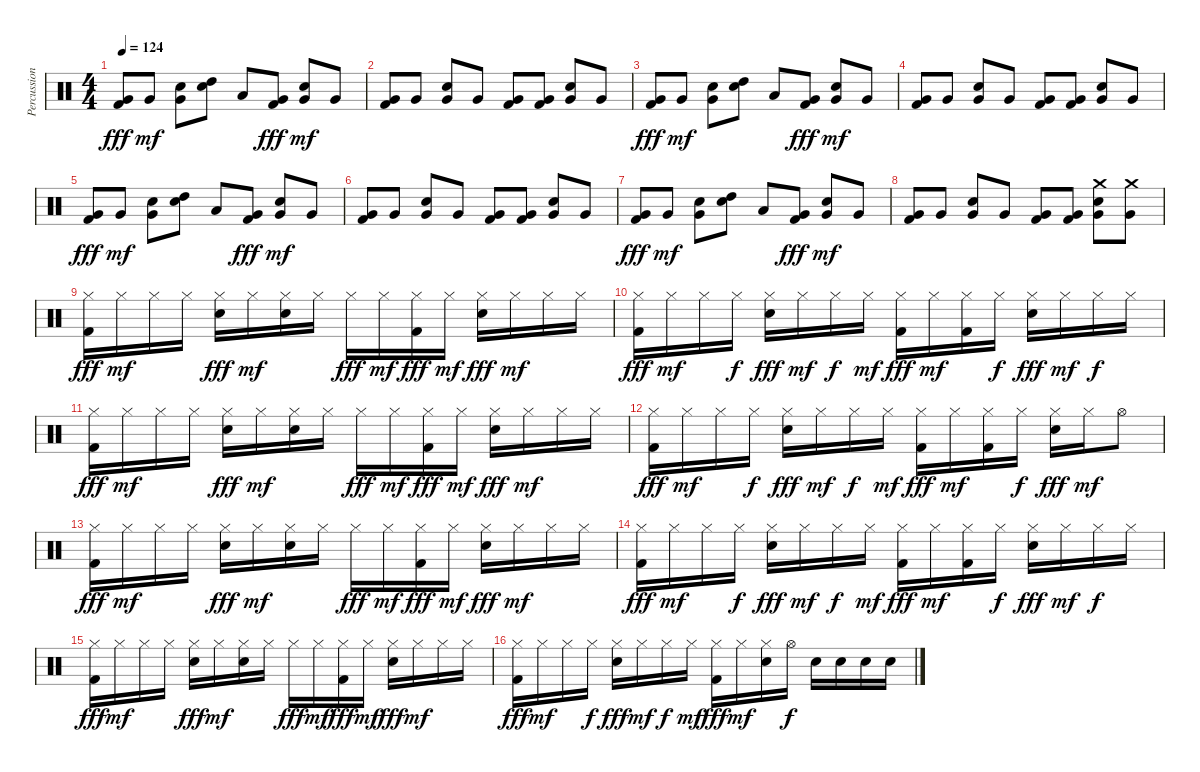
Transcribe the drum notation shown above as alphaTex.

\track ("Percussion" "Percussion") {instrument percussion}
\staff {score}
\articulation defaults
\ts (4 4)
\tempo 124
\clef neutral
\ks c
("Very Low Tom (hit)" "Kick (hit) 2").8{dy fff} "Very Low Tom (hit)".8{dy mf} ("Very Low Tom (hit)" "Snare (hit) 2").8 ("High Tom (hit)" "Snare (hit) 2").8 "Low Tom (hit)".8 ("Very Low Tom (hit)" "Kick (hit) 2").8{dy fff} ("Very Low Tom (hit)" "Snare (hit) 2").8{dy mf} "Very Low Tom (hit)".8 |
("Very Low Tom (hit)" "Kick (hit) 2").8 "Very Low Tom (hit)".8 ("Very Low Tom (hit)" "Snare (hit) 2").8 "Very Low Tom (hit)".8 ("Very Low Tom (hit)" "Kick (hit) 2").8 ("Very Low Tom (hit)" "Kick (hit) 2").8 ("Very Low Tom (hit)" "Snare (hit) 2").8 "Very Low Tom (hit)".8 |
("Very Low Tom (hit)" "Kick (hit) 2").8{dy fff} "Very Low Tom (hit)".8{dy mf} ("Very Low Tom (hit)" "Snare (hit) 2").8 ("High Tom (hit)" "Snare (hit) 2").8 "Low Tom (hit)".8 ("Very Low Tom (hit)" "Kick (hit) 2").8{dy fff} ("Very Low Tom (hit)" "Snare (hit) 2").8{dy mf} "Very Low Tom (hit)".8 |
("Very Low Tom (hit)" "Kick (hit) 2").8 "Very Low Tom (hit)".8 ("Very Low Tom (hit)" "Snare (hit) 2").8 "Very Low Tom (hit)".8 ("Very Low Tom (hit)" "Kick (hit) 2").8 ("Very Low Tom (hit)" "Kick (hit) 2").8 ("Very Low Tom (hit)" "Snare (hit) 2").8 "Very Low Tom (hit)".8 |
("Very Low Tom (hit)" "Kick (hit) 2").8{dy fff} "Very Low Tom (hit)".8{dy mf} ("Very Low Tom (hit)" "Snare (hit) 2").8 ("High Tom (hit)" "Snare (hit) 2").8 "Low Tom (hit)".8 ("Very Low Tom (hit)" "Kick (hit) 2").8{dy fff} ("Very Low Tom (hit)" "Snare (hit) 2").8{dy mf} "Very Low Tom (hit)".8 |
("Very Low Tom (hit)" "Kick (hit) 2").8 "Very Low Tom (hit)".8 ("Very Low Tom (hit)" "Snare (hit) 2").8 "Very Low Tom (hit)".8 ("Very Low Tom (hit)" "Kick (hit) 2").8 ("Very Low Tom (hit)" "Kick (hit) 2").8 ("Very Low Tom (hit)" "Snare (hit) 2").8 "Very Low Tom (hit)".8 |
("Very Low Tom (hit)" "Kick (hit) 2").8{dy fff} "Very Low Tom (hit)".8{dy mf} ("Very Low Tom (hit)" "Snare (hit) 2").8 ("High Tom (hit)" "Snare (hit) 2").8 "Low Tom (hit)".8 ("Very Low Tom (hit)" "Kick (hit) 2").8{dy fff} ("Very Low Tom (hit)" "Snare (hit) 2").8{dy mf} "Very Low Tom (hit)".8 |
("Very Low Tom (hit)" "Kick (hit) 2").8 "Very Low Tom (hit)".8 ("Very Low Tom (hit)" "Snare (hit) 2").8 "Very Low Tom (hit)".8 ("Very Low Tom (hit)" "Kick (hit) 2").8 ("Very Low Tom (hit)" "Kick (hit) 2").8 ("Crash medium (hit)" "Very Low Tom (hit)" "Snare (hit) 2").8 ("Crash medium (hit)" "Very Low Tom (hit)").8 |
("Hi-Hat (closed)" "Kick (hit) 2").16{dy fff} "Hi-Hat (closed)".16{dy mf} "Hi-Hat (closed)".16 "Hi-Hat (closed)".16 ("Hi-Hat (closed)" "Snare (hit) 2").16{dy fff} "Hi-Hat (closed)".16{dy mf} ("Hi-Hat (closed)" "Snare (hit) 2").16 "Hi-Hat (closed)".16 "Hi-Hat (closed)".16{dy fff} "Hi-Hat (closed)".16{dy mf} ("Hi-Hat (closed)" "Kick (hit) 2").16{dy fff} "Hi-Hat (closed)".16{dy mf} ("Hi-Hat (closed)" "Snare (hit) 2").16{dy fff} "Hi-Hat (closed)".16{dy mf} "Hi-Hat (closed)".16 "Hi-Hat (closed)".16 |
("Hi-Hat (closed)" "Kick (hit) 2").16{dy fff} "Hi-Hat (closed)".16{dy mf} "Hi-Hat (closed)".16 "Hi-Hat (closed)".16{dy f} ("Hi-Hat (closed)" "Snare (hit) 2").16{dy fff} "Hi-Hat (closed)".16{dy mf} "Hi-Hat (closed)".16{dy f} "Hi-Hat (closed)".16{dy mf} ("Hi-Hat (closed)" "Kick (hit) 2").16{dy fff} "Hi-Hat (closed)".16{dy mf} ("Hi-Hat (closed)" "Kick (hit) 2").16 "Hi-Hat (closed)".16{dy f} ("Hi-Hat (closed)" "Snare (hit) 2").16{dy fff} "Hi-Hat (closed)".16{dy mf} "Hi-Hat (closed)".16{dy f} "Hi-Hat (closed)".16 |
("Hi-Hat (closed)" "Kick (hit) 2").16{dy fff} "Hi-Hat (closed)".16{dy mf} "Hi-Hat (closed)".16 "Hi-Hat (closed)".16 ("Hi-Hat (closed)" "Snare (hit) 2").16{dy fff} "Hi-Hat (closed)".16{dy mf} ("Hi-Hat (closed)" "Snare (hit) 2").16 "Hi-Hat (closed)".16 "Hi-Hat (closed)".16{dy fff} "Hi-Hat (closed)".16{dy mf} ("Hi-Hat (closed)" "Kick (hit) 2").16{dy fff} "Hi-Hat (closed)".16{dy mf} ("Hi-Hat (closed)" "Snare (hit) 2").16{dy fff} "Hi-Hat (closed)".16{dy mf} "Hi-Hat (closed)".16 "Hi-Hat (closed)".16 |
("Hi-Hat (closed)" "Kick (hit) 2").16{dy fff} "Hi-Hat (closed)".16{dy mf} "Hi-Hat (closed)".16 "Hi-Hat (closed)".16{dy f} ("Hi-Hat (closed)" "Snare (hit) 2").16{dy fff} "Hi-Hat (closed)".16{dy mf} "Hi-Hat (closed)".16{dy f} "Hi-Hat (closed)".16{dy mf} ("Hi-Hat (closed)" "Kick (hit) 2").16{dy fff} "Hi-Hat (closed)".16{dy mf} ("Hi-Hat (closed)" "Kick (hit) 2").16 "Hi-Hat (closed)".16{dy f} ("Hi-Hat (closed)" "Snare (hit) 2").16{dy fff} "Hi-Hat (closed)".16{dy mf} "Hi-Hat (open)".8 |
("Hi-Hat (closed)" "Kick (hit) 2").16{dy fff} "Hi-Hat (closed)".16{dy mf} "Hi-Hat (closed)".16 "Hi-Hat (closed)".16 ("Hi-Hat (closed)" "Snare (hit) 2").16{dy fff} "Hi-Hat (closed)".16{dy mf} ("Hi-Hat (closed)" "Snare (hit) 2").16 "Hi-Hat (closed)".16 "Hi-Hat (closed)".16{dy fff} "Hi-Hat (closed)".16{dy mf} ("Hi-Hat (closed)" "Kick (hit) 2").16{dy fff} "Hi-Hat (closed)".16{dy mf} ("Hi-Hat (closed)" "Snare (hit) 2").16{dy fff} "Hi-Hat (closed)".16{dy mf} "Hi-Hat (closed)".16 "Hi-Hat (closed)".16 |
("Hi-Hat (closed)" "Kick (hit) 2").16{dy fff} "Hi-Hat (closed)".16{dy mf} "Hi-Hat (closed)".16 "Hi-Hat (closed)".16{dy f} ("Hi-Hat (closed)" "Snare (hit) 2").16{dy fff} "Hi-Hat (closed)".16{dy mf} "Hi-Hat (closed)".16{dy f} "Hi-Hat (closed)".16{dy mf} ("Hi-Hat (closed)" "Kick (hit) 2").16{dy fff} "Hi-Hat (closed)".16{dy mf} ("Hi-Hat (closed)" "Kick (hit) 2").16 "Hi-Hat (closed)".16{dy f} ("Hi-Hat (closed)" "Snare (hit) 2").16{dy fff} "Hi-Hat (closed)".16{dy mf} "Hi-Hat (closed)".16{dy f} "Hi-Hat (closed)".16 |
("Hi-Hat (closed)" "Kick (hit) 2").16{dy fff} "Hi-Hat (closed)".16{dy mf} "Hi-Hat (closed)".16 "Hi-Hat (closed)".16 ("Hi-Hat (closed)" "Snare (hit) 2").16{dy fff} "Hi-Hat (closed)".16{dy mf} ("Hi-Hat (closed)" "Snare (hit) 2").16 "Hi-Hat (closed)".16 "Hi-Hat (closed)".16{dy fff} "Hi-Hat (closed)".16{dy mf} ("Hi-Hat (closed)" "Kick (hit) 2").16{dy fff} "Hi-Hat (closed)".16{dy mf} ("Hi-Hat (closed)" "Snare (hit) 2").16{dy fff} "Hi-Hat (closed)".16{dy mf} "Hi-Hat (closed)".16 "Hi-Hat (closed)".16 |
("Hi-Hat (closed)" "Kick (hit) 2").16{dy fff} "Hi-Hat (closed)".16{dy mf} "Hi-Hat (closed)".16 "Hi-Hat (closed)".16{dy f} ("Hi-Hat (closed)" "Snare (hit) 2").16{dy fff} "Hi-Hat (closed)".16{dy mf} "Hi-Hat (closed)".16{dy f} "Hi-Hat (closed)".16{dy mf} ("Hi-Hat (closed)" "Kick (hit) 2").16{dy fff} "Hi-Hat (closed)".16{dy mf} ("Hi-Hat (closed)" "Snare (hit) 2").16 "Hi-Hat (open)".16{dy f} "Snare (hit) 2".16 "Snare (hit) 2".16 "Snare (hit) 2".16 "Snare (hit) 2".16
